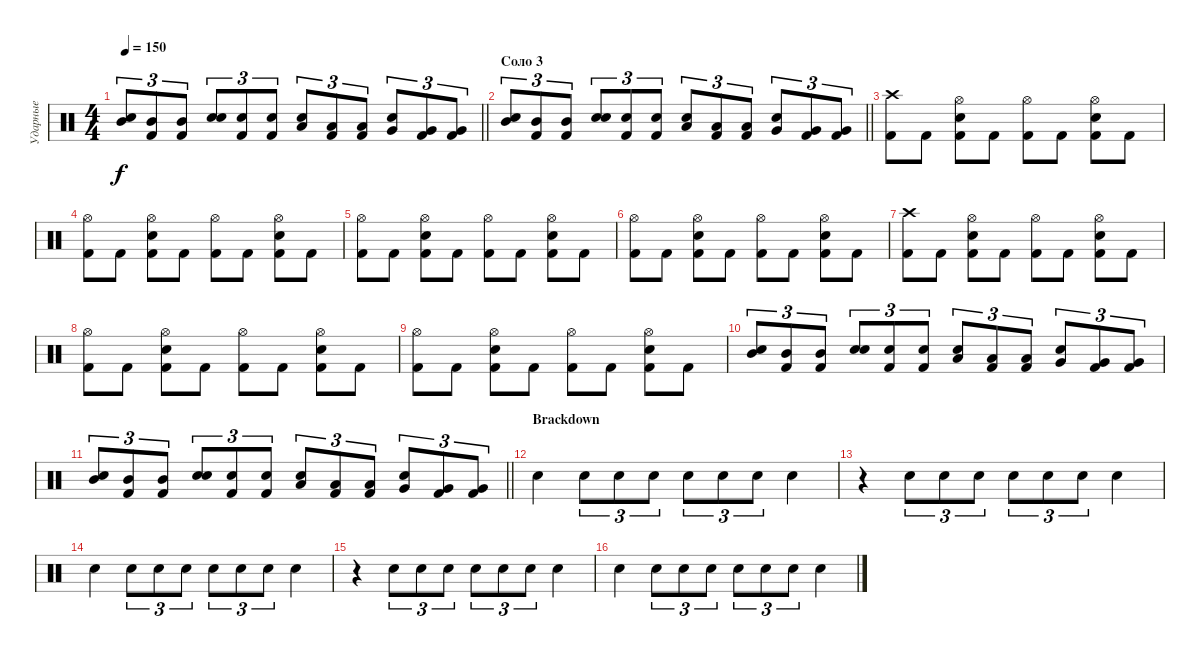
\track ("Ударные" "Ударные") {instrument percussion}
\staff {score}
\articulation defaults
\ts (4 4)
\tempo 150
\clef neutral
\barLineRight lightlight
\ks c
("Mid Tom (hit)" "Snare (hit) 2").8{tu (3 2) dy f} ("Mid Tom (hit)" "Kick (hit) 2").8{tu (3 2)} ("Mid Tom (hit)" "Kick (hit) 2").8{tu (3 2)} ("Electric Snare (hit)" "Snare (hit) 2").8{tu (3 2)} ("Electric Snare (hit)" "Kick (hit) 2").8{tu (3 2)} ("Electric Snare (hit)" "Kick (hit) 2").8{tu (3 2)} ("Low Tom (hit)" "Snare (hit) 2").8{tu (3 2)} ("Low Tom (hit)" "Kick (hit) 2").8{tu (3 2)} ("Low Tom (hit)" "Kick (hit) 2").8{tu (3 2)} ("Very Low Tom (hit)" "Snare (hit) 2").8{tu (3 2)} ("Very Low Tom (hit)" "Kick (hit) 2").8{tu (3 2)} ("Very Low Tom (hit)" "Kick (hit) 2").8{tu (3 2)} |
\section ("" "Соло 3")
\barLineRight lightlight
("Mid Tom (hit)" "Snare (hit) 2").8{tu (3 2)} ("Mid Tom (hit)" "Kick (hit) 2").8{tu (3 2)} ("Mid Tom (hit)" "Kick (hit) 2").8{tu (3 2)} ("Electric Snare (hit)" "Snare (hit) 2").8{tu (3 2)} ("Electric Snare (hit)" "Kick (hit) 2").8{tu (3 2)} ("Electric Snare (hit)" "Kick (hit) 2").8{tu (3 2)} ("Low Tom (hit)" "Snare (hit) 2").8{tu (3 2)} ("Low Tom (hit)" "Kick (hit) 2").8{tu (3 2)} ("Low Tom (hit)" "Kick (hit) 2").8{tu (3 2)} ("Very Low Tom (hit)" "Snare (hit) 2").8{tu (3 2)} ("Very Low Tom (hit)" "Kick (hit) 2").8{tu (3 2)} ("Very Low Tom (hit)" "Kick (hit) 2").8{tu (3 2)} |
("Kick (hit) 2" "Crash high (hit)").8 "Kick (hit) 2".8 ("Snare (hit) 2" "Kick (hit) 2" "Hi-Hat (open)").8 "Kick (hit) 2".8 ("Kick (hit) 2" "Hi-Hat (open)").8 "Kick (hit) 2".8 ("Snare (hit) 2" "Kick (hit) 2" "Hi-Hat (open)").8 "Kick (hit) 2".8 |
("Kick (hit) 2" "Hi-Hat (open)").8 "Kick (hit) 2".8 ("Snare (hit) 2" "Kick (hit) 2" "Hi-Hat (open)").8 "Kick (hit) 2".8 ("Kick (hit) 2" "Hi-Hat (open)").8 "Kick (hit) 2".8 ("Snare (hit) 2" "Kick (hit) 2" "Hi-Hat (open)").8 "Kick (hit) 2".8 |
("Kick (hit) 2" "Hi-Hat (open)").8 "Kick (hit) 2".8 ("Snare (hit) 2" "Kick (hit) 2" "Hi-Hat (open)").8 "Kick (hit) 2".8 ("Kick (hit) 2" "Hi-Hat (open)").8 "Kick (hit) 2".8 ("Snare (hit) 2" "Kick (hit) 2" "Hi-Hat (open)").8 "Kick (hit) 2".8 |
("Kick (hit) 2" "Hi-Hat (open)").8 "Kick (hit) 2".8 ("Snare (hit) 2" "Kick (hit) 2" "Hi-Hat (open)").8 "Kick (hit) 2".8 ("Kick (hit) 2" "Hi-Hat (open)").8 "Kick (hit) 2".8 ("Snare (hit) 2" "Kick (hit) 2" "Hi-Hat (open)").8 "Kick (hit) 2".8 |
("Kick (hit) 2" "Crash high (hit)").8 "Kick (hit) 2".8 ("Snare (hit) 2" "Kick (hit) 2" "Hi-Hat (open)").8 "Kick (hit) 2".8 ("Kick (hit) 2" "Hi-Hat (open)").8 "Kick (hit) 2".8 ("Snare (hit) 2" "Kick (hit) 2" "Hi-Hat (open)").8 "Kick (hit) 2".8 |
("Kick (hit) 2" "Hi-Hat (open)").8 "Kick (hit) 2".8 ("Snare (hit) 2" "Kick (hit) 2" "Hi-Hat (open)").8 "Kick (hit) 2".8 ("Kick (hit) 2" "Hi-Hat (open)").8 "Kick (hit) 2".8 ("Snare (hit) 2" "Kick (hit) 2" "Hi-Hat (open)").8 "Kick (hit) 2".8 |
("Kick (hit) 2" "Hi-Hat (open)").8 "Kick (hit) 2".8 ("Snare (hit) 2" "Kick (hit) 2" "Hi-Hat (open)").8 "Kick (hit) 2".8 ("Kick (hit) 2" "Hi-Hat (open)").8 "Kick (hit) 2".8 ("Snare (hit) 2" "Kick (hit) 2" "Hi-Hat (open)").8 "Kick (hit) 2".8 |
("Mid Tom (hit)" "Snare (hit) 2").8{tu (3 2)} ("Mid Tom (hit)" "Kick (hit) 2").8{tu (3 2)} ("Mid Tom (hit)" "Kick (hit) 2").8{tu (3 2)} ("Electric Snare (hit)" "Snare (hit) 2").8{tu (3 2)} ("Electric Snare (hit)" "Kick (hit) 2").8{tu (3 2)} ("Electric Snare (hit)" "Kick (hit) 2").8{tu (3 2)} ("Low Tom (hit)" "Snare (hit) 2").8{tu (3 2)} ("Low Tom (hit)" "Kick (hit) 2").8{tu (3 2)} ("Low Tom (hit)" "Kick (hit) 2").8{tu (3 2)} ("Very Low Tom (hit)" "Snare (hit) 2").8{tu (3 2)} ("Very Low Tom (hit)" "Kick (hit) 2").8{tu (3 2)} ("Very Low Tom (hit)" "Kick (hit) 2").8{tu (3 2)} |
\barLineRight lightlight
("Mid Tom (hit)" "Snare (hit) 2").8{tu (3 2)} ("Mid Tom (hit)" "Kick (hit) 2").8{tu (3 2)} ("Mid Tom (hit)" "Kick (hit) 2").8{tu (3 2)} ("Electric Snare (hit)" "Snare (hit) 2").8{tu (3 2)} ("Electric Snare (hit)" "Kick (hit) 2").8{tu (3 2)} ("Electric Snare (hit)" "Kick (hit) 2").8{tu (3 2)} ("Low Tom (hit)" "Snare (hit) 2").8{tu (3 2)} ("Low Tom (hit)" "Kick (hit) 2").8{tu (3 2)} ("Low Tom (hit)" "Kick (hit) 2").8{tu (3 2)} ("Very Low Tom (hit)" "Snare (hit) 2").8{tu (3 2)} ("Very Low Tom (hit)" "Kick (hit) 2").8{tu (3 2)} ("Very Low Tom (hit)" "Kick (hit) 2").8{tu (3 2)} |
\section ("" "Brackdown")
"Snare (hit) 2".4 "Snare (hit) 2".8{tu (3 2)} "Snare (hit) 2".8{tu (3 2)} "Snare (hit) 2".8{tu (3 2)} "Snare (hit) 2".8{tu (3 2)} "Snare (hit) 2".8{tu (3 2)} "Snare (hit) 2".8{tu (3 2)} "Snare (hit) 2".4 |
r.4 "Snare (hit) 2".8{tu (3 2)} "Snare (hit) 2".8{tu (3 2)} "Snare (hit) 2".8{tu (3 2)} "Snare (hit) 2".8{tu (3 2)} "Snare (hit) 2".8{tu (3 2)} "Snare (hit) 2".8{tu (3 2)} "Snare (hit) 2".4 |
"Snare (hit) 2".4 "Snare (hit) 2".8{tu (3 2)} "Snare (hit) 2".8{tu (3 2)} "Snare (hit) 2".8{tu (3 2)} "Snare (hit) 2".8{tu (3 2)} "Snare (hit) 2".8{tu (3 2)} "Snare (hit) 2".8{tu (3 2)} "Snare (hit) 2".4 |
r.4 "Snare (hit) 2".8{tu (3 2)} "Snare (hit) 2".8{tu (3 2)} "Snare (hit) 2".8{tu (3 2)} "Snare (hit) 2".8{tu (3 2)} "Snare (hit) 2".8{tu (3 2)} "Snare (hit) 2".8{tu (3 2)} "Snare (hit) 2".4 |
"Snare (hit) 2".4 "Snare (hit) 2".8{tu (3 2)} "Snare (hit) 2".8{tu (3 2)} "Snare (hit) 2".8{tu (3 2)} "Snare (hit) 2".8{tu (3 2)} "Snare (hit) 2".8{tu (3 2)} "Snare (hit) 2".8{tu (3 2)} "Snare (hit) 2".4
